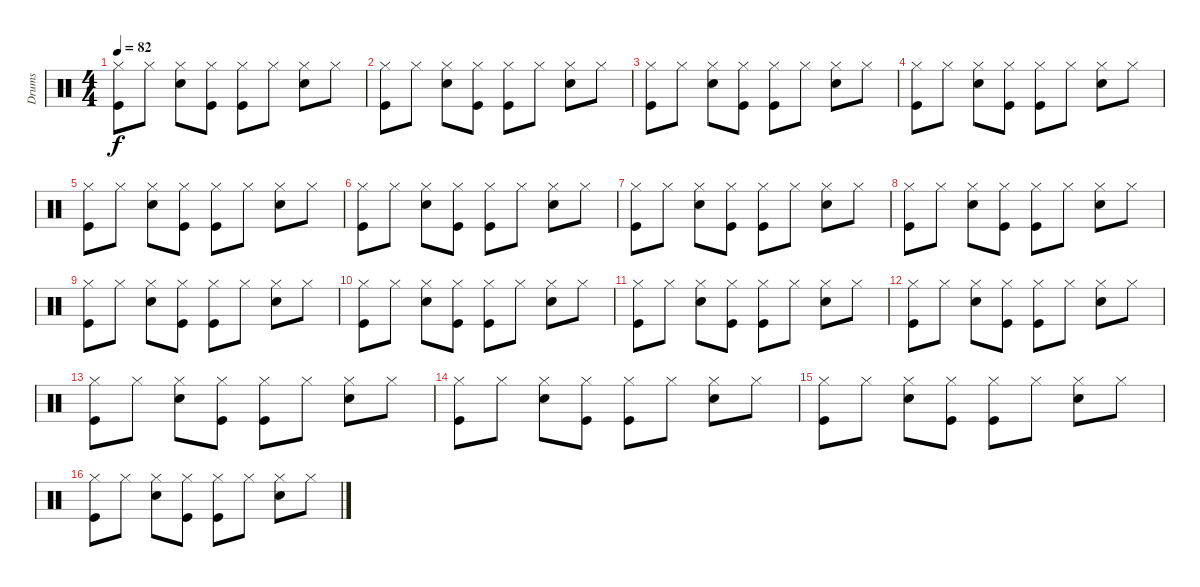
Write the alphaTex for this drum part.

\track ("Drums" "Drums") {instrument percussion}
\staff {score}
\articulation defaults
\ts (4 4)
\tempo 82
\clef neutral
\ks c
("Hi-Hat (closed)" "Kick (hit)").8{dy f} "Hi-Hat (closed)".8 ("Hi-Hat (closed)" "Electric Snare (hit)").8 ("Hi-Hat (closed)" "Kick (hit)").8 ("Hi-Hat (closed)" "Kick (hit)").8 "Hi-Hat (closed)".8 ("Hi-Hat (closed)" "Electric Snare (hit)").8 "Hi-Hat (closed)".8 |
("Hi-Hat (closed)" "Kick (hit)").8 "Hi-Hat (closed)".8 ("Hi-Hat (closed)" "Electric Snare (hit)").8 ("Hi-Hat (closed)" "Kick (hit)").8 ("Hi-Hat (closed)" "Kick (hit)").8 "Hi-Hat (closed)".8 ("Hi-Hat (closed)" "Electric Snare (hit)").8 "Hi-Hat (closed)".8 |
("Hi-Hat (closed)" "Kick (hit)").8 "Hi-Hat (closed)".8 ("Hi-Hat (closed)" "Electric Snare (hit)").8 ("Hi-Hat (closed)" "Kick (hit)").8 ("Hi-Hat (closed)" "Kick (hit)").8 "Hi-Hat (closed)".8 ("Hi-Hat (closed)" "Electric Snare (hit)").8 "Hi-Hat (closed)".8 |
("Hi-Hat (closed)" "Kick (hit)").8 "Hi-Hat (closed)".8 ("Hi-Hat (closed)" "Electric Snare (hit)").8 ("Hi-Hat (closed)" "Kick (hit)").8 ("Hi-Hat (closed)" "Kick (hit)").8 "Hi-Hat (closed)".8 ("Hi-Hat (closed)" "Electric Snare (hit)").8 "Hi-Hat (closed)".8 |
("Hi-Hat (closed)" "Kick (hit)").8 "Hi-Hat (closed)".8 ("Hi-Hat (closed)" "Electric Snare (hit)").8 ("Hi-Hat (closed)" "Kick (hit)").8 ("Hi-Hat (closed)" "Kick (hit)").8 "Hi-Hat (closed)".8 ("Hi-Hat (closed)" "Electric Snare (hit)").8 "Hi-Hat (closed)".8 |
("Hi-Hat (closed)" "Kick (hit)").8 "Hi-Hat (closed)".8 ("Hi-Hat (closed)" "Electric Snare (hit)").8 ("Hi-Hat (closed)" "Kick (hit)").8 ("Hi-Hat (closed)" "Kick (hit)").8 "Hi-Hat (closed)".8 ("Hi-Hat (closed)" "Electric Snare (hit)").8 "Hi-Hat (closed)".8 |
("Hi-Hat (closed)" "Kick (hit)").8 "Hi-Hat (closed)".8 ("Hi-Hat (closed)" "Electric Snare (hit)").8 ("Hi-Hat (closed)" "Kick (hit)").8 ("Hi-Hat (closed)" "Kick (hit)").8 "Hi-Hat (closed)".8 ("Hi-Hat (closed)" "Electric Snare (hit)").8 "Hi-Hat (closed)".8 |
("Hi-Hat (closed)" "Kick (hit)").8 "Hi-Hat (closed)".8 ("Hi-Hat (closed)" "Electric Snare (hit)").8 ("Hi-Hat (closed)" "Kick (hit)").8 ("Hi-Hat (closed)" "Kick (hit)").8 "Hi-Hat (closed)".8 ("Hi-Hat (closed)" "Electric Snare (hit)").8 "Hi-Hat (closed)".8 |
("Hi-Hat (closed)" "Kick (hit)").8 "Hi-Hat (closed)".8 ("Hi-Hat (closed)" "Electric Snare (hit)").8 ("Hi-Hat (closed)" "Kick (hit)").8 ("Hi-Hat (closed)" "Kick (hit)").8 "Hi-Hat (closed)".8 ("Hi-Hat (closed)" "Electric Snare (hit)").8 "Hi-Hat (closed)".8 |
("Hi-Hat (closed)" "Kick (hit)").8 "Hi-Hat (closed)".8 ("Hi-Hat (closed)" "Electric Snare (hit)").8 ("Hi-Hat (closed)" "Kick (hit)").8 ("Hi-Hat (closed)" "Kick (hit)").8 "Hi-Hat (closed)".8 ("Hi-Hat (closed)" "Electric Snare (hit)").8 "Hi-Hat (closed)".8 |
("Hi-Hat (closed)" "Kick (hit)").8 "Hi-Hat (closed)".8 ("Hi-Hat (closed)" "Electric Snare (hit)").8 ("Hi-Hat (closed)" "Kick (hit)").8 ("Hi-Hat (closed)" "Kick (hit)").8 "Hi-Hat (closed)".8 ("Hi-Hat (closed)" "Electric Snare (hit)").8 "Hi-Hat (closed)".8 |
("Hi-Hat (closed)" "Kick (hit)").8 "Hi-Hat (closed)".8 ("Hi-Hat (closed)" "Electric Snare (hit)").8 ("Hi-Hat (closed)" "Kick (hit)").8 ("Hi-Hat (closed)" "Kick (hit)").8 "Hi-Hat (closed)".8 ("Hi-Hat (closed)" "Electric Snare (hit)").8 "Hi-Hat (closed)".8 |
("Hi-Hat (closed)" "Kick (hit)").8 "Hi-Hat (closed)".8 ("Hi-Hat (closed)" "Electric Snare (hit)").8 ("Hi-Hat (closed)" "Kick (hit)").8 ("Hi-Hat (closed)" "Kick (hit)").8 "Hi-Hat (closed)".8 ("Hi-Hat (closed)" "Electric Snare (hit)").8 "Hi-Hat (closed)".8 |
("Hi-Hat (closed)" "Kick (hit)").8 "Hi-Hat (closed)".8 ("Hi-Hat (closed)" "Electric Snare (hit)").8 ("Hi-Hat (closed)" "Kick (hit)").8 ("Hi-Hat (closed)" "Kick (hit)").8 "Hi-Hat (closed)".8 ("Hi-Hat (closed)" "Electric Snare (hit)").8 "Hi-Hat (closed)".8 |
("Hi-Hat (closed)" "Kick (hit)").8 "Hi-Hat (closed)".8 ("Hi-Hat (closed)" "Electric Snare (hit)").8 ("Hi-Hat (closed)" "Kick (hit)").8 ("Hi-Hat (closed)" "Kick (hit)").8 "Hi-Hat (closed)".8 ("Hi-Hat (closed)" "Electric Snare (hit)").8 "Hi-Hat (closed)".8 |
("Hi-Hat (closed)" "Kick (hit)").8 "Hi-Hat (closed)".8 ("Hi-Hat (closed)" "Electric Snare (hit)").8 ("Hi-Hat (closed)" "Kick (hit)").8 ("Hi-Hat (closed)" "Kick (hit)").8 "Hi-Hat (closed)".8 ("Hi-Hat (closed)" "Electric Snare (hit)").8 "Hi-Hat (closed)".8
